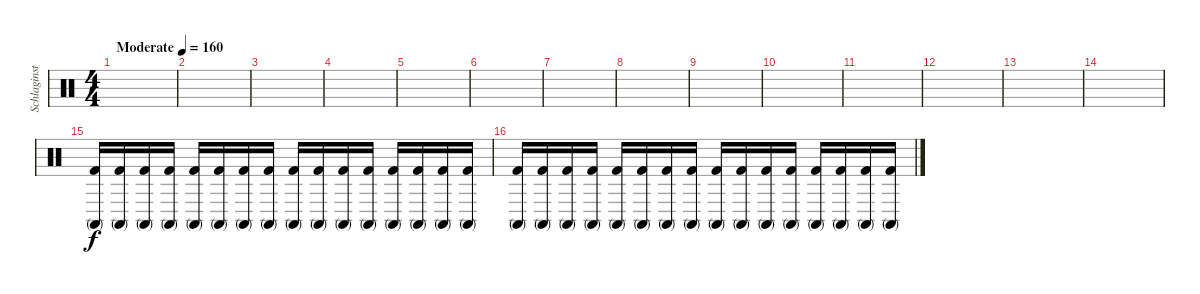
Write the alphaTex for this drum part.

\track ("Schlaginstrumente - Auswahl" "Schlaginst") {instrument percussion}
\staff {score}
\articulation defaults
\ts (4 4)
\tempo (160 "Moderate")
\clef neutral
\ks c
|
|
|
|
|
|
|
|
|
|
|
|
|
|
("Conga high (mute)" "Kick (hit) 2").16 ("Conga high (mute)" "Kick (hit) 2").16 ("Conga high (mute)" "Kick (hit) 2").16 ("Conga high (mute)" "Kick (hit) 2").16 ("Conga high (mute)" "Kick (hit) 2").16 ("Conga high (mute)" "Kick (hit) 2").16 ("Conga high (mute)" "Kick (hit) 2").16 ("Conga high (mute)" "Kick (hit) 2").16 ("Conga high (mute)" "Kick (hit) 2").16 ("Conga high (mute)" "Kick (hit) 2").16 ("Conga high (mute)" "Kick (hit) 2").16 ("Conga high (mute)" "Kick (hit) 2").16 ("Conga high (mute)" "Kick (hit) 2").16 ("Conga high (mute)" "Kick (hit) 2").16 ("Conga high (mute)" "Kick (hit) 2").16 ("Conga high (mute)" "Kick (hit) 2").16 |
("Conga high (mute)" "Kick (hit) 2").16 ("Conga high (mute)" "Kick (hit) 2").16 ("Conga high (mute)" "Kick (hit) 2").16 ("Conga high (mute)" "Kick (hit) 2").16 ("Conga high (mute)" "Kick (hit) 2").16 ("Conga high (mute)" "Kick (hit) 2").16 ("Conga high (mute)" "Kick (hit) 2").16 ("Conga high (mute)" "Kick (hit) 2").16 ("Conga high (mute)" "Kick (hit) 2").16 ("Conga high (mute)" "Kick (hit) 2").16 ("Conga high (mute)" "Kick (hit) 2").16 ("Conga high (mute)" "Kick (hit) 2").16 ("Conga high (mute)" "Kick (hit) 2").16 ("Conga high (mute)" "Kick (hit) 2").16 ("Conga high (mute)" "Kick (hit) 2").16 ("Conga high (mute)" "Kick (hit) 2").16
